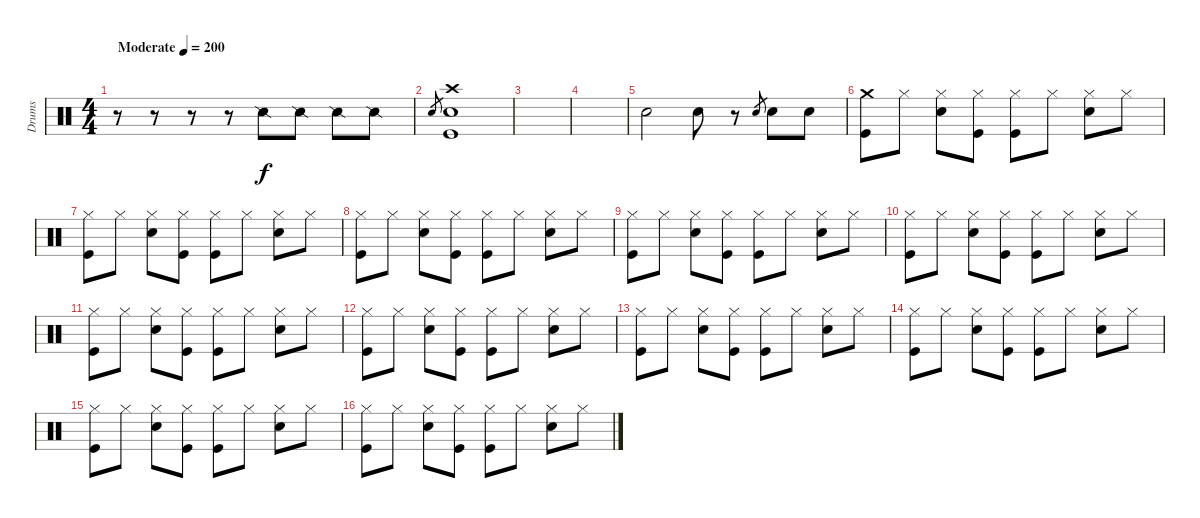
\track ("Drums" "Drums") {instrument percussion}
\staff {score}
\articulation defaults
\ts (4 4)
\tempo (200 "Moderate")
\clef neutral
\ks c
r.8{dy f} r.8 r.8 r.8 "Snare (side stick) 2".8 "Snare (side stick) 2".8 "Snare (side stick) 2".8 "Snare (side stick) 2".8 |
"Snare (hit) 2".8{gr} ("Crash high (hit)" "Snare (hit) 2" "Kick (hit)").1 |
|
|
"Snare (hit) 2".2 "Snare (hit) 2".8 r.8 "Snare (hit) 2".8{gr} "Snare (hit) 2".8 "Snare (hit) 2".8 |
("Crash medium (hit)" "Kick (hit)").8 "Hi-Hat (closed)".8 ("Hi-Hat (closed)" "Snare (hit) 2").8 ("Hi-Hat (closed)" "Kick (hit)").8 ("Hi-Hat (closed)" "Kick (hit)").8 "Hi-Hat (closed)".8 ("Hi-Hat (closed)" "Snare (hit) 2").8 "Hi-Hat (closed)".8 |
("Hi-Hat (closed)" "Kick (hit)").8 "Hi-Hat (closed)".8 ("Hi-Hat (closed)" "Snare (hit) 2").8 ("Hi-Hat (closed)" "Kick (hit)").8 ("Hi-Hat (closed)" "Kick (hit)").8 "Hi-Hat (closed)".8 ("Hi-Hat (closed)" "Snare (hit) 2").8 "Hi-Hat (closed)".8 |
("Hi-Hat (closed)" "Kick (hit)").8 "Hi-Hat (closed)".8 ("Hi-Hat (closed)" "Snare (hit) 2").8 ("Hi-Hat (closed)" "Kick (hit)").8 ("Hi-Hat (closed)" "Kick (hit)").8 "Hi-Hat (closed)".8 ("Hi-Hat (closed)" "Snare (hit) 2").8 "Hi-Hat (closed)".8 |
("Hi-Hat (closed)" "Kick (hit)").8 "Hi-Hat (closed)".8 ("Hi-Hat (closed)" "Snare (hit) 2").8 ("Hi-Hat (closed)" "Kick (hit)").8 ("Hi-Hat (closed)" "Kick (hit)").8 "Hi-Hat (closed)".8 ("Hi-Hat (closed)" "Snare (hit) 2").8 "Hi-Hat (closed)".8 |
("Hi-Hat (closed)" "Kick (hit)").8 "Hi-Hat (closed)".8 ("Hi-Hat (closed)" "Snare (hit) 2").8 ("Hi-Hat (closed)" "Kick (hit)").8 ("Hi-Hat (closed)" "Kick (hit)").8 "Hi-Hat (closed)".8 ("Hi-Hat (closed)" "Snare (hit) 2").8 "Hi-Hat (closed)".8 |
("Hi-Hat (closed)" "Kick (hit)").8 "Hi-Hat (closed)".8 ("Hi-Hat (closed)" "Snare (hit) 2").8 ("Hi-Hat (closed)" "Kick (hit)").8 ("Hi-Hat (closed)" "Kick (hit)").8 "Hi-Hat (closed)".8 ("Hi-Hat (closed)" "Snare (hit) 2").8 "Hi-Hat (closed)".8 |
("Hi-Hat (closed)" "Kick (hit)").8 "Hi-Hat (closed)".8 ("Hi-Hat (closed)" "Snare (hit) 2").8 ("Hi-Hat (closed)" "Kick (hit)").8 ("Hi-Hat (closed)" "Kick (hit)").8 "Hi-Hat (closed)".8 ("Hi-Hat (closed)" "Snare (hit) 2").8 "Hi-Hat (closed)".8 |
("Hi-Hat (closed)" "Kick (hit)").8 "Hi-Hat (closed)".8 ("Hi-Hat (closed)" "Snare (hit) 2").8 ("Hi-Hat (closed)" "Kick (hit)").8 ("Hi-Hat (closed)" "Kick (hit)").8 "Hi-Hat (closed)".8 ("Hi-Hat (closed)" "Snare (hit) 2").8 "Hi-Hat (closed)".8 |
("Hi-Hat (closed)" "Kick (hit)").8 "Hi-Hat (closed)".8 ("Hi-Hat (closed)" "Snare (hit) 2").8 ("Hi-Hat (closed)" "Kick (hit)").8 ("Hi-Hat (closed)" "Kick (hit)").8 "Hi-Hat (closed)".8 ("Hi-Hat (closed)" "Snare (hit) 2").8 "Hi-Hat (closed)".8 |
("Hi-Hat (closed)" "Kick (hit)").8 "Hi-Hat (closed)".8 ("Hi-Hat (closed)" "Snare (hit) 2").8 ("Hi-Hat (closed)" "Kick (hit)").8 ("Hi-Hat (closed)" "Kick (hit)").8 "Hi-Hat (closed)".8 ("Hi-Hat (closed)" "Snare (hit) 2").8 "Hi-Hat (closed)".8 |
("Hi-Hat (closed)" "Kick (hit)").8 "Hi-Hat (closed)".8 ("Hi-Hat (closed)" "Snare (hit) 2").8 ("Hi-Hat (closed)" "Kick (hit)").8 ("Hi-Hat (closed)" "Kick (hit)").8 "Hi-Hat (closed)".8 ("Hi-Hat (closed)" "Snare (hit) 2").8 "Hi-Hat (closed)".8
